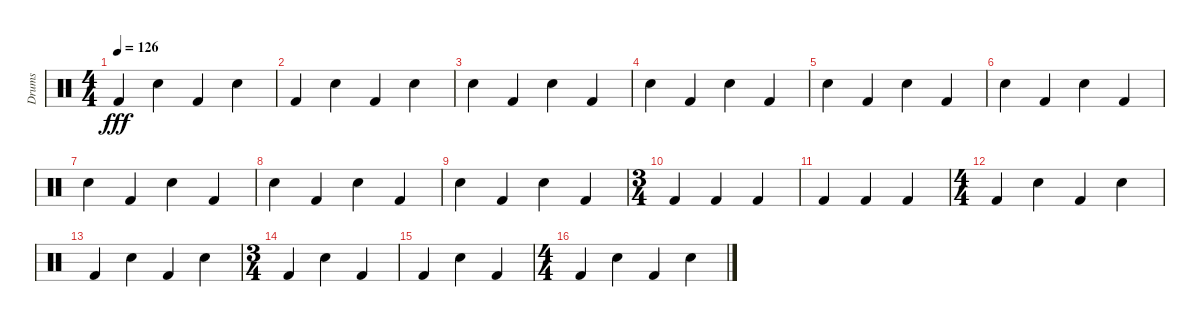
\track ("Drums" "Drums") {instrument percussion}
\staff {score}
\articulation defaults
\ts (4 4)
\tempo 126
\clef neutral
\ks c "Kick (hit) 2".4{dy fff} "Snare (hit) 2".4 "Kick (hit) 2".4 "Snare (hit) 2".4
|
"Kick (hit) 2".4 "Snare (hit) 2".4 "Kick (hit) 2".4 "Snare (hit) 2".4 |
"Snare (hit) 2".4 "Kick (hit) 2".4 "Snare (hit) 2".4 "Kick (hit) 2".4 |
"Snare (hit) 2".4 "Kick (hit) 2".4 "Snare (hit) 2".4 "Kick (hit) 2".4 |
"Snare (hit) 2".4 "Kick (hit) 2".4 "Snare (hit) 2".4 "Kick (hit) 2".4 |
"Snare (hit) 2".4 "Kick (hit) 2".4 "Snare (hit) 2".4 "Kick (hit) 2".4 |
"Snare (hit) 2".4 "Kick (hit) 2".4 "Snare (hit) 2".4 "Kick (hit) 2".4 |
"Snare (hit) 2".4 "Kick (hit) 2".4 "Snare (hit) 2".4 "Kick (hit) 2".4 |
"Snare (hit) 2".4 "Kick (hit) 2".4 "Snare (hit) 2".4 "Kick (hit) 2".4 |
\ts (3 4)
"Kick (hit) 2".4 "Kick (hit) 2".4 "Kick (hit) 2".4 |
"Kick (hit) 2".4 "Kick (hit) 2".4 "Kick (hit) 2".4 |
\ts (4 4)
"Kick (hit) 2".4 "Snare (hit) 2".4 "Kick (hit) 2".4 "Snare (hit) 2".4 |
"Kick (hit) 2".4 "Snare (hit) 2".4 "Kick (hit) 2".4 "Snare (hit) 2".4 |
\ts (3 4)
"Kick (hit) 2".4 "Snare (hit) 2".4 "Kick (hit) 2".4 |
"Kick (hit) 2".4 "Snare (hit) 2".4 "Kick (hit) 2".4 |
\ts (4 4)
"Kick (hit) 2".4 "Snare (hit) 2".4 "Kick (hit) 2".4 "Snare (hit) 2".4
